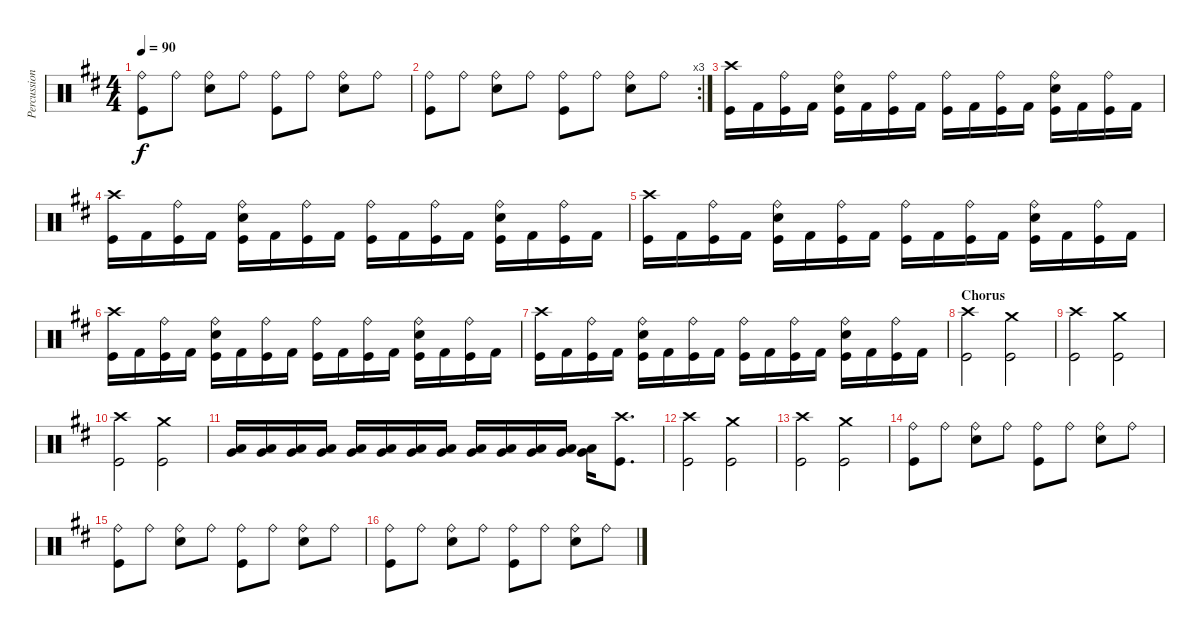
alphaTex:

\track ("Percussion" "Percussion") {instrument percussion}
\staff {score}
\articulation defaults
\ts (4 4)
\tempo 90
\clef neutral
\ks d
("Ride (bell)" "Kick (hit)").8{dy f} "Ride (bell)".8 ("Ride (bell)" "Snare (hit) 2").8 "Ride (bell)".8 ("Ride (bell)" "Kick (hit)").8 "Ride (bell)".8 ("Ride (bell)" "Snare (hit) 2").8 "Ride (bell)".8 |
\rc 3
("Ride (bell)" "Kick (hit)").8 "Ride (bell)".8 ("Ride (bell)" "Snare (hit) 2").8 "Ride (bell)".8 ("Ride (bell)" "Kick (hit)").8 "Ride (bell)".8 ("Ride (bell)" "Snare (hit) 2").8 "Ride (bell)".8 |
("Crash high (hit)" "Kick (hit)").16 "Kick (hit) 2".16 ("Ride (bell)" "Kick (hit)").16 "Kick (hit) 2".16 ("Ride (bell)" "Snare (hit) 2" "Kick (hit)").16 "Kick (hit) 2".16 ("Ride (bell)" "Kick (hit)").16 "Kick (hit) 2".16 ("Ride (bell)" "Kick (hit)").16 "Kick (hit) 2".16 ("Ride (bell)" "Kick (hit)").16 "Kick (hit) 2".16 ("Ride (bell)" "Snare (hit) 2" "Kick (hit)").16 "Kick (hit) 2".16 ("Ride (bell)" "Kick (hit)").16 "Kick (hit) 2".16 |
("Crash high (hit)" "Kick (hit)").16 "Kick (hit) 2".16 ("Ride (bell)" "Kick (hit)").16 "Kick (hit) 2".16 ("Ride (bell)" "Snare (hit) 2" "Kick (hit)").16 "Kick (hit) 2".16 ("Ride (bell)" "Kick (hit)").16 "Kick (hit) 2".16 ("Ride (bell)" "Kick (hit)").16 "Kick (hit) 2".16 ("Ride (bell)" "Kick (hit)").16 "Kick (hit) 2".16 ("Ride (bell)" "Snare (hit) 2" "Kick (hit)").16 "Kick (hit) 2".16 ("Ride (bell)" "Kick (hit)").16 "Kick (hit) 2".16 |
("Crash high (hit)" "Kick (hit)").16 "Kick (hit) 2".16 ("Ride (bell)" "Kick (hit)").16 "Kick (hit) 2".16 ("Ride (bell)" "Snare (hit) 2" "Kick (hit)").16 "Kick (hit) 2".16 ("Ride (bell)" "Kick (hit)").16 "Kick (hit) 2".16 ("Ride (bell)" "Kick (hit)").16 "Kick (hit) 2".16 ("Ride (bell)" "Kick (hit)").16 "Kick (hit) 2".16 ("Ride (bell)" "Snare (hit) 2" "Kick (hit)").16 "Kick (hit) 2".16 ("Ride (bell)" "Kick (hit)").16 "Kick (hit) 2".16 |
("Crash high (hit)" "Kick (hit)").16 "Kick (hit) 2".16 ("Ride (bell)" "Kick (hit)").16 "Kick (hit) 2".16 ("Ride (bell)" "Snare (hit) 2" "Kick (hit)").16 "Kick (hit) 2".16 ("Ride (bell)" "Kick (hit)").16 "Kick (hit) 2".16 ("Ride (bell)" "Kick (hit)").16 "Kick (hit) 2".16 ("Ride (bell)" "Kick (hit)").16 "Kick (hit) 2".16 ("Ride (bell)" "Snare (hit) 2" "Kick (hit)").16 "Kick (hit) 2".16 ("Ride (bell)" "Kick (hit)").16 "Kick (hit) 2".16 |
("Crash high (hit)" "Kick (hit)").16 "Kick (hit) 2".16 ("Ride (bell)" "Kick (hit)").16 "Kick (hit) 2".16 ("Ride (bell)" "Snare (hit) 2" "Kick (hit)").16 "Kick (hit) 2".16 ("Ride (bell)" "Kick (hit)").16 "Kick (hit) 2".16 ("Ride (bell)" "Kick (hit)").16 "Kick (hit) 2".16 ("Ride (bell)" "Kick (hit)").16 "Kick (hit) 2".16 ("Ride (bell)" "Snare (hit) 2" "Kick (hit)").16 "Kick (hit) 2".16 ("Ride (bell)" "Kick (hit)").16 "Kick (hit) 2".16 |
\section ("" "Chorus")
("Crash high (hit)" "Kick (hit)").2 ("Crash medium (hit)" "Kick (hit)").2 |
("Crash high (hit)" "Kick (hit)").2 ("Crash medium (hit)" "Kick (hit)").2 |
("Crash high (hit)" "Kick (hit)").2 ("Crash medium (hit)" "Kick (hit)").2 |
("Very Low Tom (hit)" "Low Floor Tom (hit)").16 ("Very Low Tom (hit)" "Low Floor Tom (hit)").16 ("Very Low Tom (hit)" "Low Floor Tom (hit)").16 ("Very Low Tom (hit)" "Low Floor Tom (hit)").16 ("Very Low Tom (hit)" "Low Floor Tom (hit)").16 ("Very Low Tom (hit)" "Low Floor Tom (hit)").16 ("Very Low Tom (hit)" "Low Floor Tom (hit)").16 ("Very Low Tom (hit)" "Low Floor Tom (hit)").16 ("Very Low Tom (hit)" "Low Floor Tom (hit)").16 ("Very Low Tom (hit)" "Low Floor Tom (hit)").16 ("Very Low Tom (hit)" "Low Floor Tom (hit)").16 ("Very Low Tom (hit)" "Low Floor Tom (hit)").16 ("Very Low Tom (hit)" "Low Floor Tom (hit)").16 ("Crash high (hit)" "Kick (hit)").8{d} |
("Crash high (hit)" "Kick (hit)").2 ("Crash medium (hit)" "Kick (hit)").2 |
("Crash high (hit)" "Kick (hit)").2 ("Crash medium (hit)" "Kick (hit)").2 |
("Ride (bell)" "Kick (hit)").8 "Ride (bell)".8 ("Ride (bell)" "Snare (hit) 2").8 "Ride (bell)".8 ("Ride (bell)" "Kick (hit)").8 "Ride (bell)".8 ("Ride (bell)" "Snare (hit) 2").8 "Ride (bell)".8 |
("Ride (bell)" "Kick (hit)").8 "Ride (bell)".8 ("Ride (bell)" "Snare (hit) 2").8 "Ride (bell)".8 ("Ride (bell)" "Kick (hit)").8 "Ride (bell)".8 ("Ride (bell)" "Snare (hit) 2").8 "Ride (bell)".8 |
("Ride (bell)" "Kick (hit)").8 "Ride (bell)".8 ("Ride (bell)" "Snare (hit) 2").8 "Ride (bell)".8 ("Ride (bell)" "Kick (hit)").8 "Ride (bell)".8 ("Ride (bell)" "Snare (hit) 2").8 "Ride (bell)".8
